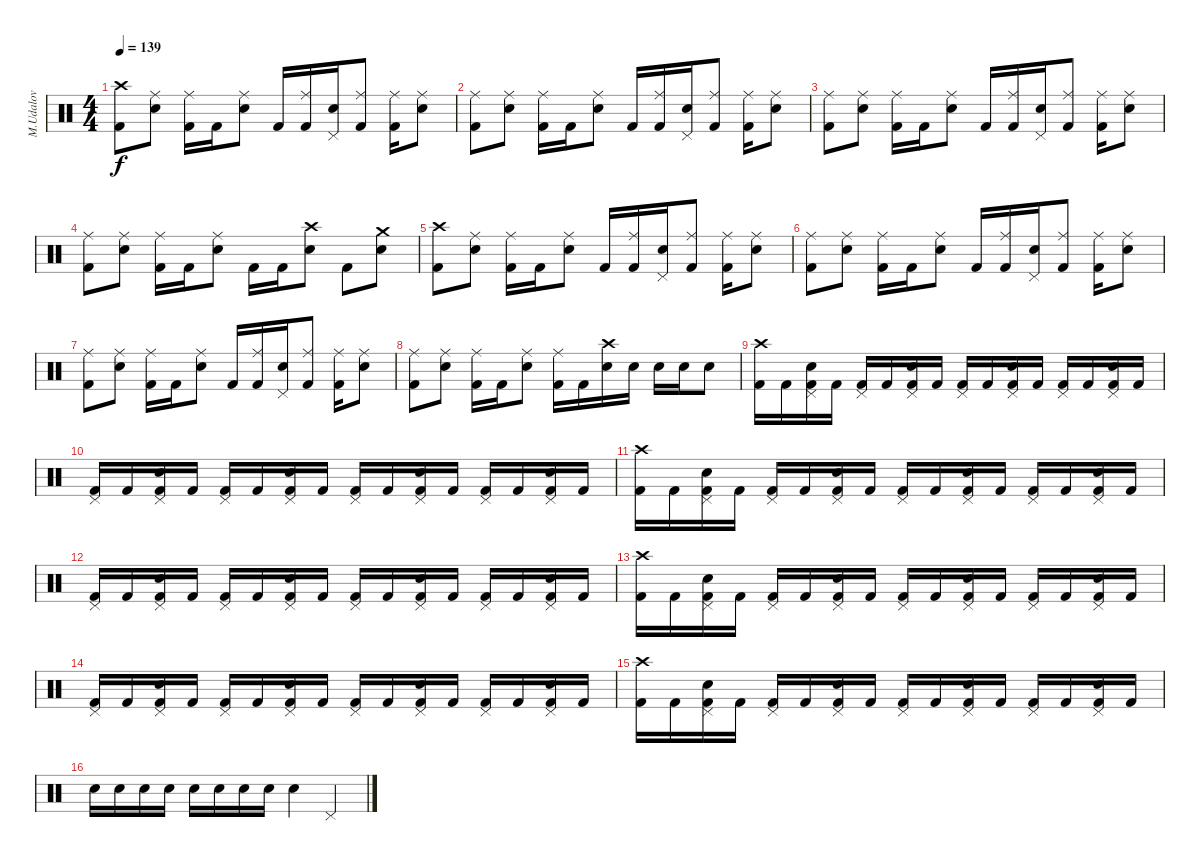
\track ("M.Udalov" "M.Udalov") {instrument percussion}
\staff {score}
\articulation defaults
\ts (4 4)
\tempo 139
\clef neutral
\ks c
("Crash high (hit)" "Kick (hit) 2").8{dy f} ("Ride (middle)" "Snare (hit) 2").8 ("Ride (middle)" "Kick (hit) 2").16 "Kick (hit) 2".16 ("Ride (middle)" "Snare (hit) 2").8 "Kick (hit) 2".16 ("Ride (middle)" "Kick (hit) 2").16 ("Pedal Hi-Hat (hit)" "Snare (hit) 2").16 ("Ride (middle)" "Kick (hit) 2").8 ("Ride (middle)" "Kick (hit) 2").16 ("Ride (middle)" "Snare (hit) 2").8 |
("Ride (middle)" "Kick (hit) 2").8 ("Ride (middle)" "Snare (hit) 2").8 ("Ride (middle)" "Kick (hit) 2").16 "Kick (hit) 2".16 ("Ride (middle)" "Snare (hit) 2").8 "Kick (hit) 2".16 ("Ride (middle)" "Kick (hit) 2").16 ("Pedal Hi-Hat (hit)" "Snare (hit) 2").16 ("Ride (middle)" "Kick (hit) 2").8 ("Ride (middle)" "Kick (hit) 2").16 ("Ride (middle)" "Snare (hit) 2").8 |
("Ride (middle)" "Kick (hit) 2").8 ("Ride (middle)" "Snare (hit) 2").8 ("Ride (middle)" "Kick (hit) 2").16 "Kick (hit) 2".16 ("Ride (middle)" "Snare (hit) 2").8 "Kick (hit) 2".16 ("Ride (middle)" "Kick (hit) 2").16 ("Pedal Hi-Hat (hit)" "Snare (hit) 2").16 ("Ride (middle)" "Kick (hit) 2").8 ("Ride (middle)" "Kick (hit) 2").16 ("Ride (middle)" "Snare (hit) 2").8 |
("Ride (middle)" "Kick (hit) 2").8 ("Ride (middle)" "Snare (hit) 2").8 ("Ride (middle)" "Kick (hit) 2").16 "Kick (hit) 2".16 ("Ride (middle)" "Snare (hit) 2").8 "Kick (hit) 2".16 "Kick (hit) 2".16 ("Crash high (hit)" "Snare (hit) 2").8 "Kick (hit) 2".8 ("Crash medium (hit)" "Snare (hit) 2").8 |
("Crash high (hit)" "Kick (hit) 2").8 ("Ride (middle)" "Snare (hit) 2").8 ("Ride (middle)" "Kick (hit) 2").16 "Kick (hit) 2".16 ("Ride (middle)" "Snare (hit) 2").8 "Kick (hit) 2".16 ("Ride (middle)" "Kick (hit) 2").16 ("Pedal Hi-Hat (hit)" "Snare (hit) 2").16 ("Ride (middle)" "Kick (hit) 2").8 ("Ride (middle)" "Kick (hit) 2").16 ("Ride (middle)" "Snare (hit) 2").8 |
("Ride (middle)" "Kick (hit) 2").8 ("Ride (middle)" "Snare (hit) 2").8 ("Ride (middle)" "Kick (hit) 2").16 "Kick (hit) 2".16 ("Ride (middle)" "Snare (hit) 2").8 "Kick (hit) 2".16 ("Ride (middle)" "Kick (hit) 2").16 ("Pedal Hi-Hat (hit)" "Snare (hit) 2").16 ("Ride (middle)" "Kick (hit) 2").8 ("Ride (middle)" "Kick (hit) 2").16 ("Ride (middle)" "Snare (hit) 2").8 |
("Ride (middle)" "Kick (hit) 2").8 ("Ride (middle)" "Snare (hit) 2").8 ("Ride (middle)" "Kick (hit) 2").16 "Kick (hit) 2".16 ("Ride (middle)" "Snare (hit) 2").8 "Kick (hit) 2".16 ("Ride (middle)" "Kick (hit) 2").16 ("Pedal Hi-Hat (hit)" "Snare (hit) 2").16 ("Ride (middle)" "Kick (hit) 2").8 ("Ride (middle)" "Kick (hit) 2").16 ("Ride (middle)" "Snare (hit) 2").8 |
("Ride (middle)" "Kick (hit) 2").8 ("Ride (middle)" "Snare (hit) 2").8 ("Ride (middle)" "Kick (hit) 2").16 "Kick (hit) 2".16 ("Ride (middle)" "Snare (hit) 2").8 ("Ride (middle)" "Kick (hit) 2").16 "Kick (hit) 2".16 ("Crash high (hit)" "Snare (hit) 2").16 "Snare (hit) 2".16 "Snare (hit) 2".16 "Snare (hit) 2".16 "Snare (hit) 2".8 |
("Crash high (hit)" "Kick (hit) 2").16 "Kick (hit) 2".16 ("Pedal Hi-Hat (hit)" "Snare (hit) 2" "Kick (hit) 2").16 "Kick (hit) 2".16 ("Pedal Hi-Hat (hit)" "Kick (hit) 2").16 "Kick (hit) 2".16 ("Pedal Hi-Hat (hit)" "Snare (hit) 2" "Kick (hit) 2").16 "Kick (hit) 2".16 ("Pedal Hi-Hat (hit)" "Kick (hit) 2").16 "Kick (hit) 2".16 ("Pedal Hi-Hat (hit)" "Snare (hit) 2" "Kick (hit) 2").16 "Kick (hit) 2".16 ("Pedal Hi-Hat (hit)" "Kick (hit) 2").16 "Kick (hit) 2".16 ("Pedal Hi-Hat (hit)" "Snare (hit) 2" "Kick (hit) 2").16 "Kick (hit) 2".16 |
("Pedal Hi-Hat (hit)" "Kick (hit) 2").16 "Kick (hit) 2".16 ("Pedal Hi-Hat (hit)" "Snare (hit) 2" "Kick (hit) 2").16 "Kick (hit) 2".16 ("Pedal Hi-Hat (hit)" "Kick (hit) 2").16 "Kick (hit) 2".16 ("Pedal Hi-Hat (hit)" "Snare (hit) 2" "Kick (hit) 2").16 "Kick (hit) 2".16 ("Pedal Hi-Hat (hit)" "Kick (hit) 2").16 "Kick (hit) 2".16 ("Pedal Hi-Hat (hit)" "Snare (hit) 2" "Kick (hit) 2").16 "Kick (hit) 2".16 ("Pedal Hi-Hat (hit)" "Kick (hit) 2").16 "Kick (hit) 2".16 ("Pedal Hi-Hat (hit)" "Snare (hit) 2" "Kick (hit) 2").16 "Kick (hit) 2".16 |
("Crash high (hit)" "Kick (hit) 2").16 "Kick (hit) 2".16 ("Pedal Hi-Hat (hit)" "Snare (hit) 2" "Kick (hit) 2").16 "Kick (hit) 2".16 ("Pedal Hi-Hat (hit)" "Kick (hit) 2").16 "Kick (hit) 2".16 ("Pedal Hi-Hat (hit)" "Snare (hit) 2" "Kick (hit) 2").16 "Kick (hit) 2".16 ("Pedal Hi-Hat (hit)" "Kick (hit) 2").16 "Kick (hit) 2".16 ("Pedal Hi-Hat (hit)" "Snare (hit) 2" "Kick (hit) 2").16 "Kick (hit) 2".16 ("Pedal Hi-Hat (hit)" "Kick (hit) 2").16 "Kick (hit) 2".16 ("Pedal Hi-Hat (hit)" "Snare (hit) 2" "Kick (hit) 2").16 "Kick (hit) 2".16 |
("Pedal Hi-Hat (hit)" "Kick (hit) 2").16 "Kick (hit) 2".16 ("Pedal Hi-Hat (hit)" "Snare (hit) 2" "Kick (hit) 2").16 "Kick (hit) 2".16 ("Pedal Hi-Hat (hit)" "Kick (hit) 2").16 "Kick (hit) 2".16 ("Pedal Hi-Hat (hit)" "Snare (hit) 2" "Kick (hit) 2").16 "Kick (hit) 2".16 ("Pedal Hi-Hat (hit)" "Kick (hit) 2").16 "Kick (hit) 2".16 ("Pedal Hi-Hat (hit)" "Snare (hit) 2" "Kick (hit) 2").16 "Kick (hit) 2".16 ("Pedal Hi-Hat (hit)" "Kick (hit) 2").16 "Kick (hit) 2".16 ("Pedal Hi-Hat (hit)" "Snare (hit) 2" "Kick (hit) 2").16 "Kick (hit) 2".16 |
("Crash high (hit)" "Kick (hit) 2").16 "Kick (hit) 2".16 ("Pedal Hi-Hat (hit)" "Snare (hit) 2" "Kick (hit) 2").16 "Kick (hit) 2".16 ("Pedal Hi-Hat (hit)" "Kick (hit) 2").16 "Kick (hit) 2".16 ("Pedal Hi-Hat (hit)" "Snare (hit) 2" "Kick (hit) 2").16 "Kick (hit) 2".16 ("Pedal Hi-Hat (hit)" "Kick (hit) 2").16 "Kick (hit) 2".16 ("Pedal Hi-Hat (hit)" "Snare (hit) 2" "Kick (hit) 2").16 "Kick (hit) 2".16 ("Pedal Hi-Hat (hit)" "Kick (hit) 2").16 "Kick (hit) 2".16 ("Pedal Hi-Hat (hit)" "Snare (hit) 2" "Kick (hit) 2").16 "Kick (hit) 2".16 |
("Pedal Hi-Hat (hit)" "Kick (hit) 2").16 "Kick (hit) 2".16 ("Pedal Hi-Hat (hit)" "Snare (hit) 2" "Kick (hit) 2").16 "Kick (hit) 2".16 ("Pedal Hi-Hat (hit)" "Kick (hit) 2").16 "Kick (hit) 2".16 ("Pedal Hi-Hat (hit)" "Snare (hit) 2" "Kick (hit) 2").16 "Kick (hit) 2".16 ("Pedal Hi-Hat (hit)" "Kick (hit) 2").16 "Kick (hit) 2".16 ("Pedal Hi-Hat (hit)" "Snare (hit) 2" "Kick (hit) 2").16 "Kick (hit) 2".16 ("Pedal Hi-Hat (hit)" "Kick (hit) 2").16 "Kick (hit) 2".16 ("Pedal Hi-Hat (hit)" "Snare (hit) 2" "Kick (hit) 2").16 "Kick (hit) 2".16 |
("Crash high (hit)" "Kick (hit) 2").16 "Kick (hit) 2".16 ("Pedal Hi-Hat (hit)" "Snare (hit) 2" "Kick (hit) 2").16 "Kick (hit) 2".16 ("Pedal Hi-Hat (hit)" "Kick (hit) 2").16 "Kick (hit) 2".16 ("Pedal Hi-Hat (hit)" "Snare (hit) 2" "Kick (hit) 2").16 "Kick (hit) 2".16 ("Pedal Hi-Hat (hit)" "Kick (hit) 2").16 "Kick (hit) 2".16 ("Pedal Hi-Hat (hit)" "Snare (hit) 2" "Kick (hit) 2").16 "Kick (hit) 2".16 ("Pedal Hi-Hat (hit)" "Kick (hit) 2").16 "Kick (hit) 2".16 ("Pedal Hi-Hat (hit)" "Snare (hit) 2" "Kick (hit) 2").16 "Kick (hit) 2".16 |
"Snare (hit) 2".16 "Snare (hit) 2".16 "Snare (hit) 2".16 "Snare (hit) 2".16 "Snare (hit) 2".16 "Snare (hit) 2".16 "Snare (hit) 2".16 "Snare (hit) 2".16 "Snare (hit) 2".4 "Pedal Hi-Hat (hit)".4
